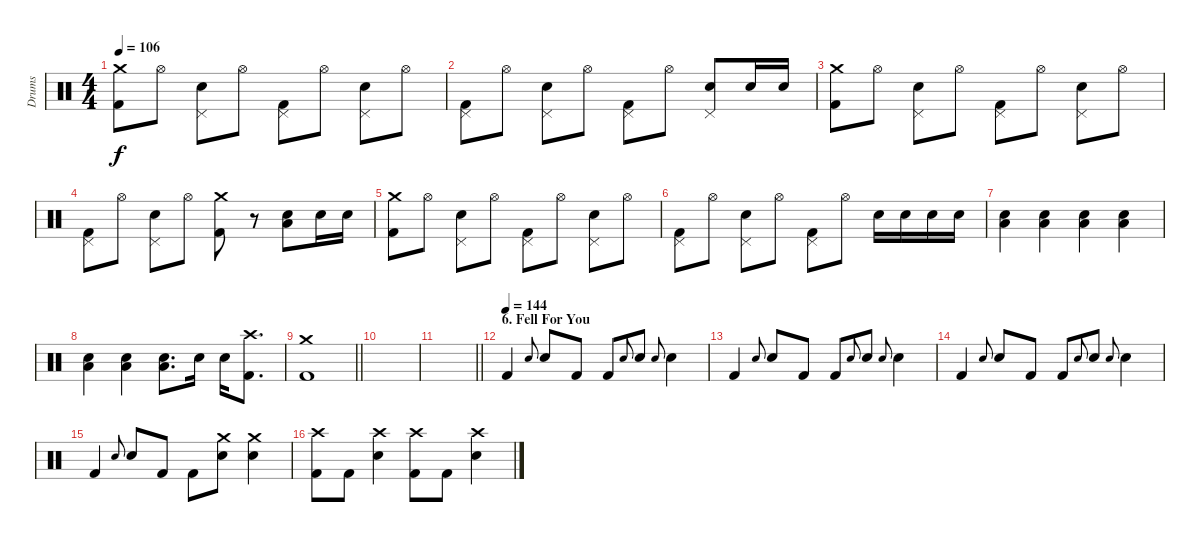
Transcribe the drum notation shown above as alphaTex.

\track ("Drums" "Drums") {instrument percussion}
\staff {score}
\articulation defaults
\ts (4 4)
\tempo 106
\clef neutral
\ks c
("Crash medium (hit)" "Kick (hit) 2").8{dy f} "Hi-Hat (open)".8 ("Pedal Hi-Hat (hit)" "Electric Snare (hit)").8 "Hi-Hat (open)".8 ("Pedal Hi-Hat (hit)" "Kick (hit) 2").8 "Hi-Hat (open)".8 ("Pedal Hi-Hat (hit)" "Electric Snare (hit)").8 "Hi-Hat (open)".8 |
("Pedal Hi-Hat (hit)" "Kick (hit) 2").8 "Hi-Hat (open)".8 ("Pedal Hi-Hat (hit)" "Electric Snare (hit)").8 "Hi-Hat (open)".8 ("Pedal Hi-Hat (hit)" "Kick (hit) 2").8 "Hi-Hat (open)".8 ("Pedal Hi-Hat (hit)" "Electric Snare (hit)").8 "Electric Snare (hit)".16 "Electric Snare (hit)".16 |
("Crash medium (hit)" "Kick (hit) 2").8 "Hi-Hat (open)".8 ("Pedal Hi-Hat (hit)" "Electric Snare (hit)").8 "Hi-Hat (open)".8 ("Pedal Hi-Hat (hit)" "Kick (hit) 2").8 "Hi-Hat (open)".8 ("Pedal Hi-Hat (hit)" "Electric Snare (hit)").8 "Hi-Hat (open)".8 |
("Pedal Hi-Hat (hit)" "Kick (hit) 2").8 "Hi-Hat (open)".8 ("Pedal Hi-Hat (hit)" "Electric Snare (hit)").8 "Hi-Hat (open)".8 ("Crash medium (hit)" "Kick (hit) 2").8 r.8 ("Electric Snare (hit)" "Low Floor Tom (hit)").8 "Electric Snare (hit)".16 "Electric Snare (hit)".16 |
("Crash medium (hit)" "Kick (hit) 2").8 "Hi-Hat (open)".8 ("Pedal Hi-Hat (hit)" "Electric Snare (hit)").8 "Hi-Hat (open)".8 ("Pedal Hi-Hat (hit)" "Kick (hit) 2").8 "Hi-Hat (open)".8 ("Pedal Hi-Hat (hit)" "Electric Snare (hit)").8 "Hi-Hat (open)".8 |
("Pedal Hi-Hat (hit)" "Kick (hit) 2").8 "Hi-Hat (open)".8 ("Pedal Hi-Hat (hit)" "Electric Snare (hit)").8 "Hi-Hat (open)".8 ("Pedal Hi-Hat (hit)" "Kick (hit) 2").8 "Hi-Hat (open)".8 "Electric Snare (hit)".16 "Electric Snare (hit)".16 "Electric Snare (hit)".16 "Electric Snare (hit)".16 |
("Electric Snare (hit)" "Low Floor Tom (hit)").4 ("Electric Snare (hit)" "Low Floor Tom (hit)").4 ("Electric Snare (hit)" "Low Floor Tom (hit)").4 ("Electric Snare (hit)" "Low Floor Tom (hit)").4 |
("Electric Snare (hit)" "Low Floor Tom (hit)").4 ("Electric Snare (hit)" "Low Floor Tom (hit)").4 ("Electric Snare (hit)" "Low Floor Tom (hit)").8{d} "Electric Snare (hit)".16 "Electric Snare (hit)".16 ("Crash high (hit)" "Kick (hit) 2").8{d} |
\barLineRight lightlight
("Crash medium (hit)" "Kick (hit) 2").1 |
|
\barLineRight lightlight
|
\section ("" "6. Fell For You")
\tempo (144)
"Kick (hit) 2".4 "Electric Snare (hit)".8{gr onbeat} "Electric Snare (hit)".8 "Kick (hit) 2".8 "Kick (hit) 2".8 "Electric Snare (hit)".8{gr onbeat} "Electric Snare (hit)".8 "Electric Snare (hit)".8{gr onbeat} "Electric Snare (hit)".4 |
"Kick (hit) 2".4 "Electric Snare (hit)".8{gr onbeat} "Electric Snare (hit)".8 "Kick (hit) 2".8 "Kick (hit) 2".8 "Electric Snare (hit)".8{gr onbeat} "Electric Snare (hit)".8 "Electric Snare (hit)".8{gr onbeat} "Electric Snare (hit)".4 |
"Kick (hit) 2".4 "Electric Snare (hit)".8{gr onbeat} "Electric Snare (hit)".8 "Kick (hit) 2".8 "Kick (hit) 2".8 "Electric Snare (hit)".8{gr onbeat} "Electric Snare (hit)".8 "Electric Snare (hit)".8{gr onbeat} "Electric Snare (hit)".4 |
"Kick (hit) 2".4 "Electric Snare (hit)".8{gr onbeat} "Electric Snare (hit)".8 "Kick (hit) 2".8 "Kick (hit) 2".8 ("Crash medium (hit)" "Electric Snare (hit)").8 ("Crash medium (hit)" "Electric Snare (hit)").4 |
("Crash high (hit)" "Kick (hit) 2").8 "Kick (hit) 2".8 ("Crash high (hit)" "Electric Snare (hit)").4 ("Crash high (hit)" "Kick (hit) 2").8 "Kick (hit) 2".8 ("Crash high (hit)" "Electric Snare (hit)").4
